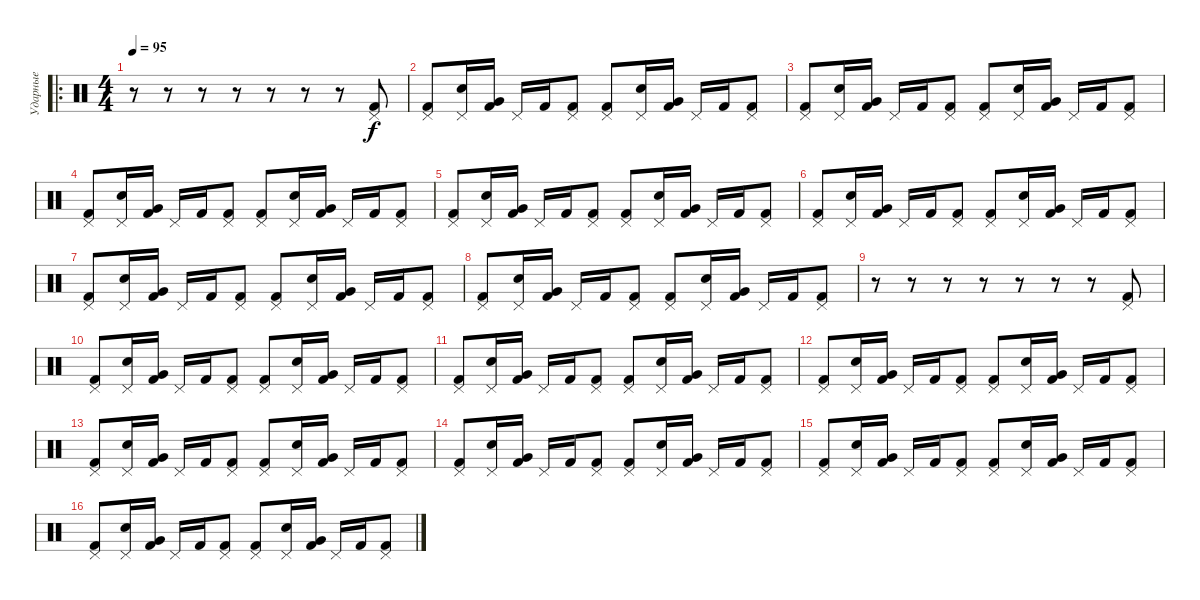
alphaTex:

\track ("Ударные" "Ударные") {instrument percussion}
\staff {score}
\articulation defaults
\ro
\ts (4 4)
\tempo 95
\clef neutral
\ks c
r.8{dy f} r.8 r.8 r.8 r.8 r.8 r.8 ("Pedal Hi-Hat (hit)" "Kick (hit) 2").8 |
("Pedal Hi-Hat (hit)" "Kick (hit) 2").8 ("Pedal Hi-Hat (hit)" "Snare (hit) 2").16 ("Very Low Tom (hit)" "Kick (hit) 2").16 "Pedal Hi-Hat (hit)".16 "Kick (hit) 2".16 ("Pedal Hi-Hat (hit)" "Kick (hit) 2").8 ("Pedal Hi-Hat (hit)" "Kick (hit) 2").8 ("Pedal Hi-Hat (hit)" "Snare (hit) 2").16 ("Very Low Tom (hit)" "Kick (hit) 2").16 "Pedal Hi-Hat (hit)".16 "Kick (hit) 2".16 ("Pedal Hi-Hat (hit)" "Kick (hit) 2").8 |
("Pedal Hi-Hat (hit)" "Kick (hit) 2").8 ("Pedal Hi-Hat (hit)" "Snare (hit) 2").16 ("Very Low Tom (hit)" "Kick (hit) 2").16 "Pedal Hi-Hat (hit)".16 "Kick (hit) 2".16 ("Pedal Hi-Hat (hit)" "Kick (hit) 2").8 ("Pedal Hi-Hat (hit)" "Kick (hit) 2").8 ("Pedal Hi-Hat (hit)" "Snare (hit) 2").16 ("Very Low Tom (hit)" "Kick (hit) 2").16 "Pedal Hi-Hat (hit)".16 "Kick (hit) 2".16 ("Pedal Hi-Hat (hit)" "Kick (hit) 2").8 |
("Pedal Hi-Hat (hit)" "Kick (hit) 2").8 ("Pedal Hi-Hat (hit)" "Snare (hit) 2").16 ("Very Low Tom (hit)" "Kick (hit) 2").16 "Pedal Hi-Hat (hit)".16 "Kick (hit) 2".16 ("Pedal Hi-Hat (hit)" "Kick (hit) 2").8 ("Pedal Hi-Hat (hit)" "Kick (hit) 2").8 ("Pedal Hi-Hat (hit)" "Snare (hit) 2").16 ("Very Low Tom (hit)" "Kick (hit) 2").16 "Pedal Hi-Hat (hit)".16 "Kick (hit) 2".16 ("Pedal Hi-Hat (hit)" "Kick (hit) 2").8 |
("Pedal Hi-Hat (hit)" "Kick (hit) 2").8 ("Pedal Hi-Hat (hit)" "Snare (hit) 2").16 ("Very Low Tom (hit)" "Kick (hit) 2").16 "Pedal Hi-Hat (hit)".16 "Kick (hit) 2".16 ("Pedal Hi-Hat (hit)" "Kick (hit) 2").8 ("Pedal Hi-Hat (hit)" "Kick (hit) 2").8 ("Pedal Hi-Hat (hit)" "Snare (hit) 2").16 ("Very Low Tom (hit)" "Kick (hit) 2").16 "Pedal Hi-Hat (hit)".16 "Kick (hit) 2".16 ("Pedal Hi-Hat (hit)" "Kick (hit) 2").8 |
("Pedal Hi-Hat (hit)" "Kick (hit) 2").8 ("Pedal Hi-Hat (hit)" "Snare (hit) 2").16 ("Very Low Tom (hit)" "Kick (hit) 2").16 "Pedal Hi-Hat (hit)".16 "Kick (hit) 2".16 ("Pedal Hi-Hat (hit)" "Kick (hit) 2").8 ("Pedal Hi-Hat (hit)" "Kick (hit) 2").8 ("Pedal Hi-Hat (hit)" "Snare (hit) 2").16 ("Very Low Tom (hit)" "Kick (hit) 2").16 "Pedal Hi-Hat (hit)".16 "Kick (hit) 2".16 ("Pedal Hi-Hat (hit)" "Kick (hit) 2").8 |
("Pedal Hi-Hat (hit)" "Kick (hit) 2").8 ("Pedal Hi-Hat (hit)" "Snare (hit) 2").16 ("Very Low Tom (hit)" "Kick (hit) 2").16 "Pedal Hi-Hat (hit)".16 "Kick (hit) 2".16 ("Pedal Hi-Hat (hit)" "Kick (hit) 2").8 ("Pedal Hi-Hat (hit)" "Kick (hit) 2").8 ("Pedal Hi-Hat (hit)" "Snare (hit) 2").16 ("Very Low Tom (hit)" "Kick (hit) 2").16 "Pedal Hi-Hat (hit)".16 "Kick (hit) 2".16 ("Pedal Hi-Hat (hit)" "Kick (hit) 2").8 |
("Pedal Hi-Hat (hit)" "Kick (hit) 2").8 ("Pedal Hi-Hat (hit)" "Snare (hit) 2").16 ("Very Low Tom (hit)" "Kick (hit) 2").16 "Pedal Hi-Hat (hit)".16 "Kick (hit) 2".16 ("Pedal Hi-Hat (hit)" "Kick (hit) 2").8 ("Pedal Hi-Hat (hit)" "Kick (hit) 2").8 ("Pedal Hi-Hat (hit)" "Snare (hit) 2").16 ("Very Low Tom (hit)" "Kick (hit) 2").16 "Pedal Hi-Hat (hit)".16 "Kick (hit) 2".16 ("Pedal Hi-Hat (hit)" "Kick (hit) 2").8 |
r.8 r.8 r.8 r.8 r.8 r.8 r.8 ("Pedal Hi-Hat (hit)" "Kick (hit) 2").8 |
("Pedal Hi-Hat (hit)" "Kick (hit) 2").8 ("Pedal Hi-Hat (hit)" "Snare (hit) 2").16 ("Very Low Tom (hit)" "Kick (hit) 2").16 "Pedal Hi-Hat (hit)".16 "Kick (hit) 2".16 ("Pedal Hi-Hat (hit)" "Kick (hit) 2").8 ("Pedal Hi-Hat (hit)" "Kick (hit) 2").8 ("Pedal Hi-Hat (hit)" "Snare (hit) 2").16 ("Very Low Tom (hit)" "Kick (hit) 2").16 "Pedal Hi-Hat (hit)".16 "Kick (hit) 2".16 ("Pedal Hi-Hat (hit)" "Kick (hit) 2").8 |
("Pedal Hi-Hat (hit)" "Kick (hit) 2").8 ("Pedal Hi-Hat (hit)" "Snare (hit) 2").16 ("Very Low Tom (hit)" "Kick (hit) 2").16 "Pedal Hi-Hat (hit)".16 "Kick (hit) 2".16 ("Pedal Hi-Hat (hit)" "Kick (hit) 2").8 ("Pedal Hi-Hat (hit)" "Kick (hit) 2").8 ("Pedal Hi-Hat (hit)" "Snare (hit) 2").16 ("Very Low Tom (hit)" "Kick (hit) 2").16 "Pedal Hi-Hat (hit)".16 "Kick (hit) 2".16 ("Pedal Hi-Hat (hit)" "Kick (hit) 2").8 |
("Pedal Hi-Hat (hit)" "Kick (hit) 2").8 ("Pedal Hi-Hat (hit)" "Snare (hit) 2").16 ("Very Low Tom (hit)" "Kick (hit) 2").16 "Pedal Hi-Hat (hit)".16 "Kick (hit) 2".16 ("Pedal Hi-Hat (hit)" "Kick (hit) 2").8 ("Pedal Hi-Hat (hit)" "Kick (hit) 2").8 ("Pedal Hi-Hat (hit)" "Snare (hit) 2").16 ("Very Low Tom (hit)" "Kick (hit) 2").16 "Pedal Hi-Hat (hit)".16 "Kick (hit) 2".16 ("Pedal Hi-Hat (hit)" "Kick (hit) 2").8 |
("Pedal Hi-Hat (hit)" "Kick (hit) 2").8 ("Pedal Hi-Hat (hit)" "Snare (hit) 2").16 ("Very Low Tom (hit)" "Kick (hit) 2").16 "Pedal Hi-Hat (hit)".16 "Kick (hit) 2".16 ("Pedal Hi-Hat (hit)" "Kick (hit) 2").8 ("Pedal Hi-Hat (hit)" "Kick (hit) 2").8 ("Pedal Hi-Hat (hit)" "Snare (hit) 2").16 ("Very Low Tom (hit)" "Kick (hit) 2").16 "Pedal Hi-Hat (hit)".16 "Kick (hit) 2".16 ("Pedal Hi-Hat (hit)" "Kick (hit) 2").8 |
("Pedal Hi-Hat (hit)" "Kick (hit) 2").8 ("Pedal Hi-Hat (hit)" "Snare (hit) 2").16 ("Very Low Tom (hit)" "Kick (hit) 2").16 "Pedal Hi-Hat (hit)".16 "Kick (hit) 2".16 ("Pedal Hi-Hat (hit)" "Kick (hit) 2").8 ("Pedal Hi-Hat (hit)" "Kick (hit) 2").8 ("Pedal Hi-Hat (hit)" "Snare (hit) 2").16 ("Very Low Tom (hit)" "Kick (hit) 2").16 "Pedal Hi-Hat (hit)".16 "Kick (hit) 2".16 ("Pedal Hi-Hat (hit)" "Kick (hit) 2").8 |
("Pedal Hi-Hat (hit)" "Kick (hit) 2").8 ("Pedal Hi-Hat (hit)" "Snare (hit) 2").16 ("Very Low Tom (hit)" "Kick (hit) 2").16 "Pedal Hi-Hat (hit)".16 "Kick (hit) 2".16 ("Pedal Hi-Hat (hit)" "Kick (hit) 2").8 ("Pedal Hi-Hat (hit)" "Kick (hit) 2").8 ("Pedal Hi-Hat (hit)" "Snare (hit) 2").16 ("Very Low Tom (hit)" "Kick (hit) 2").16 "Pedal Hi-Hat (hit)".16 "Kick (hit) 2".16 ("Pedal Hi-Hat (hit)" "Kick (hit) 2").8 |
("Pedal Hi-Hat (hit)" "Kick (hit) 2").8 ("Pedal Hi-Hat (hit)" "Snare (hit) 2").16 ("Very Low Tom (hit)" "Kick (hit) 2").16 "Pedal Hi-Hat (hit)".16 "Kick (hit) 2".16 ("Pedal Hi-Hat (hit)" "Kick (hit) 2").8 ("Pedal Hi-Hat (hit)" "Kick (hit) 2").8 ("Pedal Hi-Hat (hit)" "Snare (hit) 2").16 ("Very Low Tom (hit)" "Kick (hit) 2").16 "Pedal Hi-Hat (hit)".16 "Kick (hit) 2".16 ("Pedal Hi-Hat (hit)" "Kick (hit) 2").8
